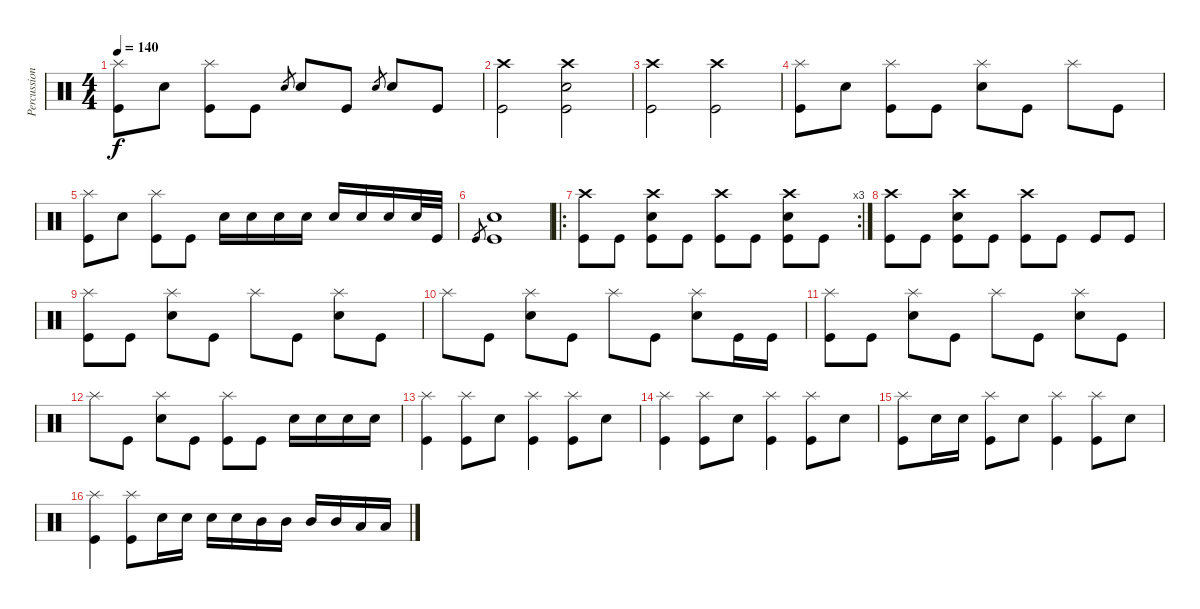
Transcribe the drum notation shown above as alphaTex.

\track ("Percussion" "Percussion") {instrument percussion}
\staff {score}
\articulation defaults
\ts (4 4)
\tempo 140
\clef neutral
\ks c
("Splash (hit)" "Kick (hit)").8{dy f} "Snare (hit) 2".8 ("Splash (hit)" "Kick (hit)").8 "Kick (hit)".8 "Snare (hit) 2".8{gr} "Snare (hit) 2".8 "Kick (hit)".8 "Snare (hit) 2".8{gr} "Snare (hit) 2".8 "Kick (hit)".8 |
("Crash high (hit)" "Kick (hit)").2 ("Crash high (hit)" "Snare (hit) 2" "Kick (hit)").2 |
("Crash high (hit)" "Kick (hit)").2 ("Crash high (hit)" "Kick (hit)").2 |
("Splash (hit)" "Kick (hit)").8 "Snare (hit) 2".8 ("Splash (hit)" "Kick (hit)").8 "Kick (hit)".8 ("Splash (hit)" "Snare (hit) 2").8 "Kick (hit)".8 "Splash (hit)".8 "Kick (hit)".8 |
("Splash (hit)" "Kick (hit)").8 "Snare (hit) 2".8 ("Splash (hit)" "Kick (hit)").8 "Kick (hit)".8 "Snare (hit) 2".16 "Snare (hit) 2".16 "Snare (hit) 2".16 "Snare (hit) 2".16 "Snare (hit) 2".16 "Snare (hit) 2".16 "Snare (hit) 2".16 "Snare (hit) 2".32 "Kick (hit)".32 |
"Kick (hit)".8{gr} ("Snare (hit) 2" "Kick (hit)").1 |
\ro
\rc 3
("Crash high (hit)" "Kick (hit)").8 "Kick (hit)".8 ("Crash high (hit)" "Snare (hit) 2" "Kick (hit)").8 "Kick (hit)".8 ("Crash high (hit)" "Kick (hit)").8 "Kick (hit)".8 ("Crash high (hit)" "Snare (hit) 2" "Kick (hit)").8 "Kick (hit)".8 |
("Crash high (hit)" "Kick (hit)").8 "Kick (hit)".8 ("Crash high (hit)" "Snare (hit) 2" "Kick (hit)").8 "Kick (hit)".8 ("Crash high (hit)" "Kick (hit)").8 "Kick (hit)".8 "Kick (hit)".8 "Kick (hit)".8 |
("Splash (hit)" "Kick (hit)").8 "Kick (hit)".8 ("Splash (hit)" "Snare (hit) 2").8 "Kick (hit)".8 "Splash (hit)".8 "Kick (hit)".8 ("Splash (hit)" "Snare (hit) 2").8 "Kick (hit)".8 |
"Splash (hit)".8 "Kick (hit)".8 ("Splash (hit)" "Snare (hit) 2").8 "Kick (hit)".8 "Splash (hit)".8 "Kick (hit)".8 ("Splash (hit)" "Snare (hit) 2").8 "Kick (hit)".16 "Kick (hit)".16 |
("Splash (hit)" "Kick (hit)").8 "Kick (hit)".8 ("Splash (hit)" "Snare (hit) 2").8 "Kick (hit)".8 "Splash (hit)".8 "Kick (hit)".8 ("Splash (hit)" "Snare (hit) 2").8 "Kick (hit)".8 |
"Splash (hit)".8 "Kick (hit)".8 ("Splash (hit)" "Snare (hit) 2").8 "Kick (hit)".8 ("Splash (hit)" "Kick (hit)").8 "Kick (hit)".8 "Snare (hit) 2".16 "Snare (hit) 2".16 "Snare (hit) 2".16 "Snare (hit) 2".16 |
("Splash (hit)" "Kick (hit)").4 ("Splash (hit)" "Kick (hit)").8 "Snare (hit) 2".8 ("Splash (hit)" "Kick (hit)").4 ("Splash (hit)" "Kick (hit)").8 "Snare (hit) 2".8 |
("Splash (hit)" "Kick (hit)").4 ("Splash (hit)" "Kick (hit)").8 "Snare (hit) 2".8 ("Splash (hit)" "Kick (hit)").4 ("Splash (hit)" "Kick (hit)").8 "Snare (hit) 2".8 |
("Splash (hit)" "Kick (hit)").8 "Snare (hit) 2".16 "Snare (hit) 2".16 ("Splash (hit)" "Kick (hit)").8 "Snare (hit) 2".8 ("Splash (hit)" "Kick (hit)").4 ("Splash (hit)" "Kick (hit)").8 "Snare (hit) 2".8 |
("Splash (hit)" "Kick (hit)").4 ("Splash (hit)" "Kick (hit)").8 "Snare (hit) 2".16 "Snare (hit) 2".16 "Snare (hit) 2".16 "Snare (hit) 2".16 "Mid Tom (hit)".16 "Mid Tom (hit)".16 "Mid Tom (hit)".16 "Mid Tom (hit)".16 "Low Tom (hit)".16 "Low Tom (hit)".16
